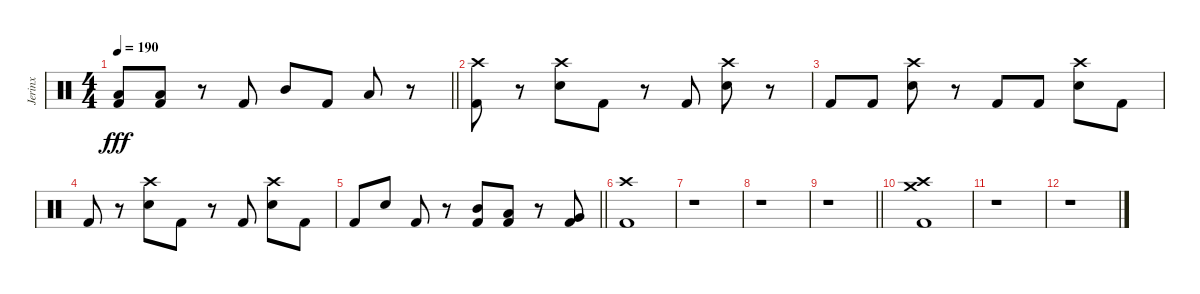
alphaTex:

\track ("Jerinx" "Jerinx") {instrument percussion}
\staff {score}
\articulation defaults
\ts (4 4)
\tempo 190
\clef neutral
\barLineRight lightlight
\ks c
("Low Floor Tom (hit)" "Kick (hit) 2").8{dy fff} ("Low Floor Tom (hit)" "Kick (hit) 2").8 r.8 "Kick (hit) 2".8 "Mid Tom (hit)".8 "Kick (hit) 2".8 "Low Tom (hit)".8 r.8 |
("Kick (hit) 2" "Crash high (hit)").8 r.8 ("Electric Snare (hit)" "Crash high (hit)").8 "Kick (hit) 2".8 r.8 "Kick (hit) 2".8 ("Electric Snare (hit)" "Crash high (hit)").8 r.8 |
"Kick (hit) 2".8 "Kick (hit) 2".8 ("Electric Snare (hit)" "Crash high (hit)").8 r.8 "Kick (hit) 2".8 "Kick (hit) 2".8 ("Electric Snare (hit)" "Crash high (hit)").8 "Kick (hit) 2".8 |
"Kick (hit) 2".8 r.8 ("Electric Snare (hit)" "Crash high (hit)").8 "Kick (hit) 2".8 r.8 "Kick (hit) 2".8 ("Electric Snare (hit)" "Crash high (hit)").8 "Kick (hit) 2".8 |
\barLineRight lightlight "Kick (hit) 2".8 "Electric Snare (hit)".8 "Kick (hit) 2".8
r.8 ("Mid Tom (hit)" "Kick (hit) 2").8 ("Low Tom (hit)" "Kick (hit) 2").8 r.8 ("Very Low Tom (hit)" "Kick (hit) 2").8 |
("Kick (hit) 2" "Crash high (hit)").1 |
r.1 |
r.1 |
\barLineRight lightlight
r.1 |
("Kick (hit) 2" "Crash high (hit)" "Crash medium (hit)").1 |
r.1 |
r.1
